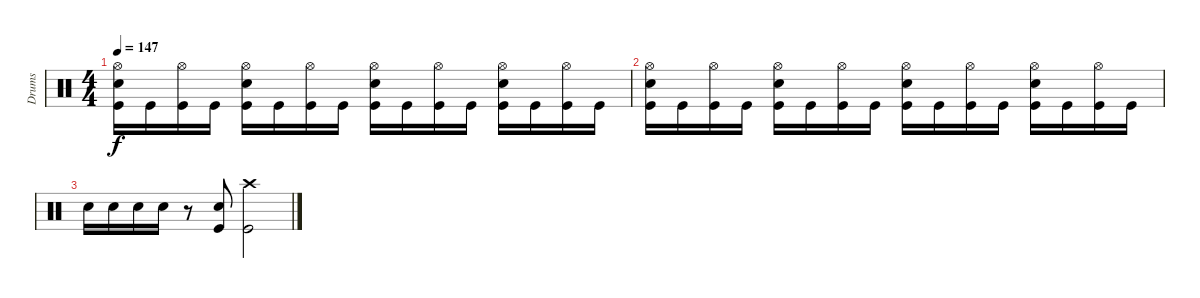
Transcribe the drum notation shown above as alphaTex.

\track ("Drums" "Drums") {instrument percussion}
\staff {score}
\articulation defaults
\ts (4 4)
\tempo 147
\clef neutral
\ks c
("Electric Snare (hit)" "Hi-Hat (open)" "Kick (hit)").16{dy f} "Kick (hit)".16 ("Hi-Hat (open)" "Kick (hit)").16 "Kick (hit)".16 ("Electric Snare (hit)" "Hi-Hat (open)" "Kick (hit)").16 "Kick (hit)".16 ("Hi-Hat (open)" "Kick (hit)").16 "Kick (hit)".16 ("Electric Snare (hit)" "Hi-Hat (open)" "Kick (hit)").16 "Kick (hit)".16 ("Hi-Hat (open)" "Kick (hit)").16 "Kick (hit)".16 ("Electric Snare (hit)" "Hi-Hat (open)" "Kick (hit)").16 "Kick (hit)".16 ("Hi-Hat (open)" "Kick (hit)").16 "Kick (hit)".16 |
("Electric Snare (hit)" "Hi-Hat (open)" "Kick (hit)").16 "Kick (hit)".16 ("Hi-Hat (open)" "Kick (hit)").16 "Kick (hit)".16 ("Electric Snare (hit)" "Hi-Hat (open)" "Kick (hit)").16 "Kick (hit)".16 ("Hi-Hat (open)" "Kick (hit)").16 "Kick (hit)".16 ("Electric Snare (hit)" "Hi-Hat (open)" "Kick (hit)").16 "Kick (hit)".16 ("Hi-Hat (open)" "Kick (hit)").16 "Kick (hit)".16 ("Electric Snare (hit)" "Hi-Hat (open)" "Kick (hit)").16 "Kick (hit)".16 ("Hi-Hat (open)" "Kick (hit)").16 "Kick (hit)".16 |
"Electric Snare (hit)".16 "Electric Snare (hit)".16 "Electric Snare (hit)".16 "Electric Snare (hit)".16 r.8 ("Electric Snare (hit)" "Kick (hit)").8 ("Crash high (hit)" "Kick (hit)").2
